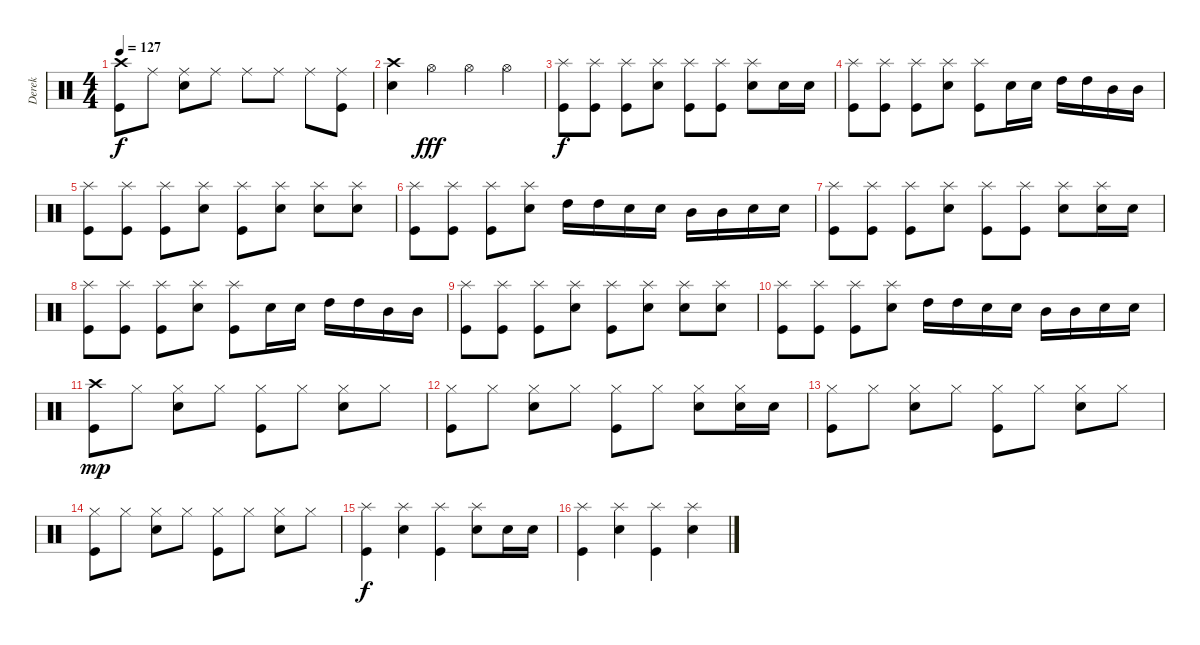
\track ("Derek" "Derek") {instrument percussion}
\staff {score}
\articulation defaults
\ts (4 4)
\tempo 127
\clef neutral
\ks c
("Crash high (hit)" "Kick (hit)").8{dy f} "Ride (middle)".8 ("Ride (middle)" "Snare (hit) 2").8 "Ride (middle)".8 "Ride (middle)".8 "Ride (middle)".8 "Ride (middle)".8 ("Ride (middle)" "Kick (hit)").8 |
("Crash high (hit)" "Snare (hit) 2").4 "Hi-Hat (open)".4{dy fff} "Hi-Hat (open)".4 "Hi-Hat (open)".4 |
("Splash (hit)" "Kick (hit)").8{dy f} ("Splash (hit)" "Kick (hit)").8 ("Splash (hit)" "Kick (hit)").8 ("Splash (hit)" "Snare (hit) 2").8 ("Splash (hit)" "Kick (hit)").8 ("Splash (hit)" "Kick (hit)").8 ("Splash (hit)" "Snare (hit) 2").8 "Snare (hit) 2".16 "Snare (hit) 2".16 |
("Splash (hit)" "Kick (hit)").8 ("Splash (hit)" "Kick (hit)").8 ("Splash (hit)" "Kick (hit)").8 ("Splash (hit)" "Snare (hit) 2").8 ("Splash (hit)" "Kick (hit)").8 "Snare (hit) 2".16 "Snare (hit) 2".16 "High Tom (hit)".16 "High Tom (hit)".16 "Mid Tom (hit)".16 "Mid Tom (hit)".16 |
("Splash (hit)" "Kick (hit)").8 ("Splash (hit)" "Kick (hit)").8 ("Splash (hit)" "Kick (hit)").8 ("Splash (hit)" "Snare (hit) 2").8 ("Splash (hit)" "Kick (hit)").8 ("Splash (hit)" "Snare (hit) 2").8 ("Splash (hit)" "Snare (hit) 2").8 ("Splash (hit)" "Snare (hit) 2").8 |
("Splash (hit)" "Kick (hit)").8 ("Splash (hit)" "Kick (hit)").8 ("Splash (hit)" "Kick (hit)").8 ("Splash (hit)" "Snare (hit) 2").8 "High Tom (hit)".16 "High Tom (hit)".16 "Snare (hit) 2".16 "Snare (hit) 2".16 "Mid Tom (hit)".16 "Mid Tom (hit)".16 "Snare (hit) 2".16 "Snare (hit) 2".16 |
("Splash (hit)" "Kick (hit)").8 ("Splash (hit)" "Kick (hit)").8 ("Splash (hit)" "Kick (hit)").8 ("Splash (hit)" "Snare (hit) 2").8 ("Splash (hit)" "Kick (hit)").8 ("Splash (hit)" "Kick (hit)").8 ("Splash (hit)" "Snare (hit) 2").8 ("Splash (hit)" "Snare (hit) 2").16 "Snare (hit) 2".16 |
("Splash (hit)" "Kick (hit)").8 ("Splash (hit)" "Kick (hit)").8 ("Splash (hit)" "Kick (hit)").8 ("Splash (hit)" "Snare (hit) 2").8 ("Splash (hit)" "Kick (hit)").8 "Snare (hit) 2".16 "Snare (hit) 2".16 "High Tom (hit)".16 "High Tom (hit)".16 "Mid Tom (hit)".16 "Mid Tom (hit)".16 |
("Splash (hit)" "Kick (hit)").8 ("Splash (hit)" "Kick (hit)").8 ("Splash (hit)" "Kick (hit)").8 ("Splash (hit)" "Snare (hit) 2").8 ("Splash (hit)" "Kick (hit)").8 ("Splash (hit)" "Snare (hit) 2").8 ("Splash (hit)" "Snare (hit) 2").8 ("Splash (hit)" "Snare (hit) 2").8 |
("Splash (hit)" "Kick (hit)").8 ("Splash (hit)" "Kick (hit)").8 ("Splash (hit)" "Kick (hit)").8 ("Splash (hit)" "Snare (hit) 2").8 "High Tom (hit)".16 "High Tom (hit)".16 "Snare (hit) 2".16 "Snare (hit) 2".16 "Mid Tom (hit)".16 "Mid Tom (hit)".16 "Snare (hit) 2".16 "Snare (hit) 2".16 |
("Crash high (hit)" "Kick (hit)").8{dy mp} "Hi-Hat (closed)".8 ("Hi-Hat (closed)" "Snare (hit) 2").8 "Hi-Hat (closed)".8 ("Hi-Hat (closed)" "Kick (hit)").8 "Hi-Hat (closed)".8 ("Hi-Hat (closed)" "Snare (hit) 2").8 "Hi-Hat (closed)".8 |
("Hi-Hat (closed)" "Kick (hit)").8 "Hi-Hat (closed)".8 ("Hi-Hat (closed)" "Snare (hit) 2").8 "Hi-Hat (closed)".8 ("Hi-Hat (closed)" "Kick (hit)").8 "Hi-Hat (closed)".8 ("Hi-Hat (closed)" "Snare (hit) 2").8 ("Hi-Hat (closed)" "Snare (hit) 2").16 "Snare (hit) 2".16 |
("Hi-Hat (closed)" "Kick (hit)").8 "Hi-Hat (closed)".8 ("Hi-Hat (closed)" "Snare (hit) 2").8 "Hi-Hat (closed)".8 ("Hi-Hat (closed)" "Kick (hit)").8 "Hi-Hat (closed)".8 ("Hi-Hat (closed)" "Snare (hit) 2").8 "Hi-Hat (closed)".8 |
("Hi-Hat (closed)" "Kick (hit)").8 "Hi-Hat (closed)".8 ("Hi-Hat (closed)" "Snare (hit) 2").8 "Hi-Hat (closed)".8 ("Hi-Hat (closed)" "Kick (hit)").8 "Hi-Hat (closed)".8 ("Hi-Hat (closed)" "Snare (hit) 2").8 "Hi-Hat (closed)".8 |
("Splash (hit)" "Kick (hit)").4{dy f} ("Splash (hit)" "Snare (hit) 2").4 ("Splash (hit)" "Kick (hit)").4 ("Splash (hit)" "Snare (hit) 2").8 "Snare (hit) 2".16 "Snare (hit) 2".16 |
("Splash (hit)" "Kick (hit)").4 ("Splash (hit)" "Snare (hit) 2").4 ("Splash (hit)" "Kick (hit)").4 ("Splash (hit)" "Snare (hit) 2").4
